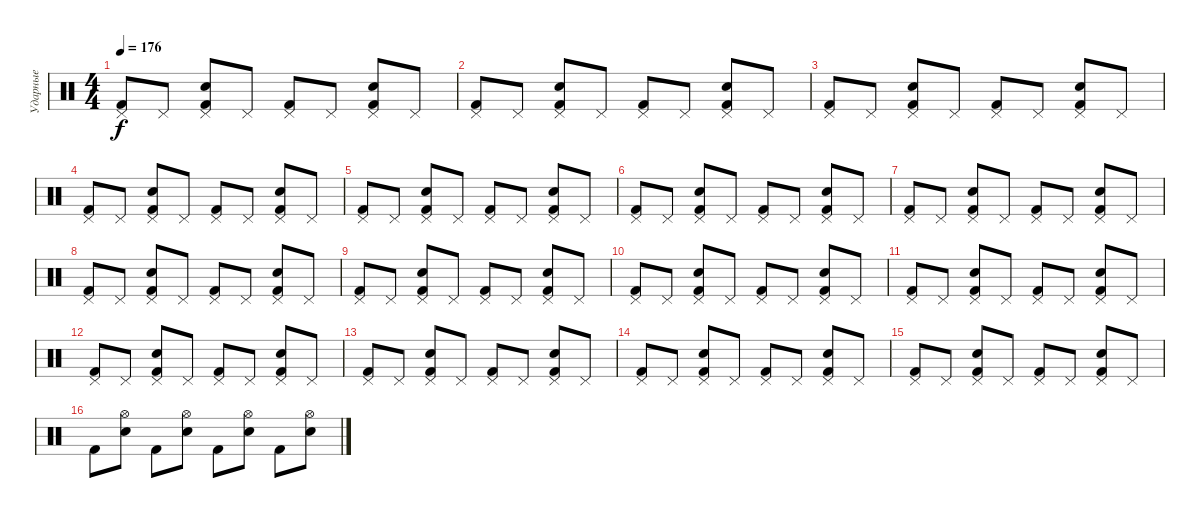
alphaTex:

\track ("Ударные" "Ударные") {instrument percussion}
\staff {score}
\articulation defaults
\ts (4 4)
\tempo 176
\clef neutral
\ks c
("Kick (hit) 2" "Pedal Hi-Hat (hit)").8{dy f} "Pedal Hi-Hat (hit)".8 ("Kick (hit) 2" "Electric Snare (hit)" "Pedal Hi-Hat (hit)").8 "Pedal Hi-Hat (hit)".8 ("Kick (hit) 2" "Pedal Hi-Hat (hit)").8 "Pedal Hi-Hat (hit)".8 ("Kick (hit) 2" "Electric Snare (hit)" "Pedal Hi-Hat (hit)").8 "Pedal Hi-Hat (hit)".8 |
("Kick (hit) 2" "Pedal Hi-Hat (hit)").8 "Pedal Hi-Hat (hit)".8 ("Kick (hit) 2" "Electric Snare (hit)" "Pedal Hi-Hat (hit)").8 "Pedal Hi-Hat (hit)".8 ("Kick (hit) 2" "Pedal Hi-Hat (hit)").8 "Pedal Hi-Hat (hit)".8 ("Kick (hit) 2" "Electric Snare (hit)" "Pedal Hi-Hat (hit)").8 "Pedal Hi-Hat (hit)".8 |
("Kick (hit) 2" "Pedal Hi-Hat (hit)").8 "Pedal Hi-Hat (hit)".8 ("Kick (hit) 2" "Electric Snare (hit)" "Pedal Hi-Hat (hit)").8 "Pedal Hi-Hat (hit)".8 ("Kick (hit) 2" "Pedal Hi-Hat (hit)").8 "Pedal Hi-Hat (hit)".8 ("Kick (hit) 2" "Electric Snare (hit)" "Pedal Hi-Hat (hit)").8 "Pedal Hi-Hat (hit)".8 |
("Kick (hit) 2" "Pedal Hi-Hat (hit)").8 "Pedal Hi-Hat (hit)".8 ("Kick (hit) 2" "Electric Snare (hit)" "Pedal Hi-Hat (hit)").8 "Pedal Hi-Hat (hit)".8 ("Kick (hit) 2" "Pedal Hi-Hat (hit)").8 "Pedal Hi-Hat (hit)".8 ("Kick (hit) 2" "Electric Snare (hit)" "Pedal Hi-Hat (hit)").8 "Pedal Hi-Hat (hit)".8 |
("Kick (hit) 2" "Pedal Hi-Hat (hit)").8 "Pedal Hi-Hat (hit)".8 ("Kick (hit) 2" "Electric Snare (hit)" "Pedal Hi-Hat (hit)").8 "Pedal Hi-Hat (hit)".8 ("Kick (hit) 2" "Pedal Hi-Hat (hit)").8 "Pedal Hi-Hat (hit)".8 ("Kick (hit) 2" "Electric Snare (hit)" "Pedal Hi-Hat (hit)").8 "Pedal Hi-Hat (hit)".8 |
("Kick (hit) 2" "Pedal Hi-Hat (hit)").8 "Pedal Hi-Hat (hit)".8 ("Kick (hit) 2" "Electric Snare (hit)" "Pedal Hi-Hat (hit)").8 "Pedal Hi-Hat (hit)".8 ("Kick (hit) 2" "Pedal Hi-Hat (hit)").8 "Pedal Hi-Hat (hit)".8 ("Kick (hit) 2" "Electric Snare (hit)" "Pedal Hi-Hat (hit)").8 "Pedal Hi-Hat (hit)".8 |
("Kick (hit) 2" "Pedal Hi-Hat (hit)").8 "Pedal Hi-Hat (hit)".8 ("Kick (hit) 2" "Electric Snare (hit)" "Pedal Hi-Hat (hit)").8 "Pedal Hi-Hat (hit)".8 ("Kick (hit) 2" "Pedal Hi-Hat (hit)").8 "Pedal Hi-Hat (hit)".8 ("Kick (hit) 2" "Electric Snare (hit)" "Pedal Hi-Hat (hit)").8 "Pedal Hi-Hat (hit)".8 |
("Kick (hit) 2" "Pedal Hi-Hat (hit)").8 "Pedal Hi-Hat (hit)".8 ("Kick (hit) 2" "Electric Snare (hit)" "Pedal Hi-Hat (hit)").8 "Pedal Hi-Hat (hit)".8 ("Kick (hit) 2" "Pedal Hi-Hat (hit)").8 "Pedal Hi-Hat (hit)".8 ("Kick (hit) 2" "Electric Snare (hit)" "Pedal Hi-Hat (hit)").8 "Pedal Hi-Hat (hit)".8 |
("Kick (hit) 2" "Pedal Hi-Hat (hit)").8 "Pedal Hi-Hat (hit)".8 ("Kick (hit) 2" "Electric Snare (hit)" "Pedal Hi-Hat (hit)").8 "Pedal Hi-Hat (hit)".8 ("Kick (hit) 2" "Pedal Hi-Hat (hit)").8 "Pedal Hi-Hat (hit)".8 ("Kick (hit) 2" "Electric Snare (hit)" "Pedal Hi-Hat (hit)").8 "Pedal Hi-Hat (hit)".8 |
("Kick (hit) 2" "Pedal Hi-Hat (hit)").8 "Pedal Hi-Hat (hit)".8 ("Kick (hit) 2" "Electric Snare (hit)" "Pedal Hi-Hat (hit)").8 "Pedal Hi-Hat (hit)".8 ("Kick (hit) 2" "Pedal Hi-Hat (hit)").8 "Pedal Hi-Hat (hit)".8 ("Kick (hit) 2" "Electric Snare (hit)" "Pedal Hi-Hat (hit)").8 "Pedal Hi-Hat (hit)".8 |
("Kick (hit) 2" "Pedal Hi-Hat (hit)").8 "Pedal Hi-Hat (hit)".8 ("Kick (hit) 2" "Electric Snare (hit)" "Pedal Hi-Hat (hit)").8 "Pedal Hi-Hat (hit)".8 ("Kick (hit) 2" "Pedal Hi-Hat (hit)").8 "Pedal Hi-Hat (hit)".8 ("Kick (hit) 2" "Electric Snare (hit)" "Pedal Hi-Hat (hit)").8 "Pedal Hi-Hat (hit)".8 |
("Kick (hit) 2" "Pedal Hi-Hat (hit)").8 "Pedal Hi-Hat (hit)".8 ("Kick (hit) 2" "Electric Snare (hit)" "Pedal Hi-Hat (hit)").8 "Pedal Hi-Hat (hit)".8 ("Kick (hit) 2" "Pedal Hi-Hat (hit)").8 "Pedal Hi-Hat (hit)".8 ("Kick (hit) 2" "Electric Snare (hit)" "Pedal Hi-Hat (hit)").8 "Pedal Hi-Hat (hit)".8 |
("Kick (hit) 2" "Pedal Hi-Hat (hit)").8 "Pedal Hi-Hat (hit)".8 ("Kick (hit) 2" "Electric Snare (hit)" "Pedal Hi-Hat (hit)").8 "Pedal Hi-Hat (hit)".8 ("Kick (hit) 2" "Pedal Hi-Hat (hit)").8 "Pedal Hi-Hat (hit)".8 ("Kick (hit) 2" "Electric Snare (hit)" "Pedal Hi-Hat (hit)").8 "Pedal Hi-Hat (hit)".8 |
("Kick (hit) 2" "Pedal Hi-Hat (hit)").8 "Pedal Hi-Hat (hit)".8 ("Kick (hit) 2" "Electric Snare (hit)" "Pedal Hi-Hat (hit)").8 "Pedal Hi-Hat (hit)".8 ("Kick (hit) 2" "Pedal Hi-Hat (hit)").8 "Pedal Hi-Hat (hit)".8 ("Kick (hit) 2" "Electric Snare (hit)" "Pedal Hi-Hat (hit)").8 "Pedal Hi-Hat (hit)".8 |
("Kick (hit) 2" "Pedal Hi-Hat (hit)").8 "Pedal Hi-Hat (hit)".8 ("Kick (hit) 2" "Electric Snare (hit)" "Pedal Hi-Hat (hit)").8 "Pedal Hi-Hat (hit)".8 ("Kick (hit) 2" "Pedal Hi-Hat (hit)").8 "Pedal Hi-Hat (hit)".8 ("Kick (hit) 2" "Electric Snare (hit)" "Pedal Hi-Hat (hit)").8 "Pedal Hi-Hat (hit)".8 |
"Kick (hit) 2".8 ("Electric Snare (hit)" "Hi-Hat (open)").8 "Kick (hit) 2".8 ("Electric Snare (hit)" "Hi-Hat (open)").8 "Kick (hit) 2".8 ("Electric Snare (hit)" "Hi-Hat (open)").8 "Kick (hit) 2".8 ("Electric Snare (hit)" "Hi-Hat (open)").8
